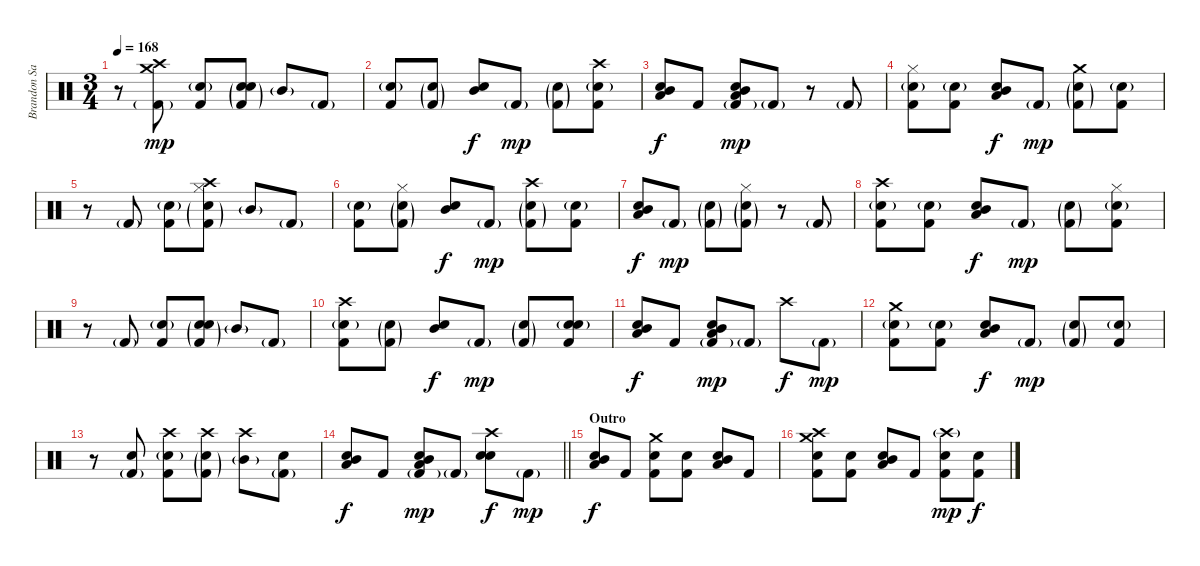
\track ("Brandon Saller" "Brandon Sa") {instrument percussion}
\staff {score}
\articulation defaults
\ts (3 4)
\tempo 168
\clef neutral
\ks c
r.8{dy mp} ("Crash high (hit)" "Crash medium (hit)" "Kick (hit) 2"{g}).8 ("Snare (hit)"{g} "Kick (hit) 2").8 ("Electric Snare (hit)" "Snare (hit)"{g} "Kick (hit) 2"{g}).8 "Mid Tom (hit)"{g}.8 "Kick (hit) 2"{g}.8 |
("Snare (hit)"{g} "Kick (hit) 2").8 ("Snare (hit)"{g} "Kick (hit) 2"{g}).8 ("Snare (hit) 2" "Mid Tom (hit)").8{dy f} "Kick (hit) 2"{g}.8{dy mp} ("Snare (hit)"{g} "Kick (hit) 2"{g}).8 ("Crash high (hit)" "Snare (hit)"{g} "Kick (hit) 2").8 |
("Snare (hit) 2" "Low Tom (hit)" "Mid Tom (hit)").8{dy f} "Kick (hit) 2".8 ("Snare (hit) 2" "Low Tom (hit)" "Mid Tom (hit)" "Kick (hit) 2"{g}).8{dy mp} "Kick (hit) 2"{g}.8 r.8 "Kick (hit) 2"{g}.8 |
("Hi-Hat (closed)" "Snare (hit)"{g} "Kick (hit) 2").8 ("Snare (hit)"{g} "Kick (hit) 2").8 ("Snare (hit) 2" "Low Tom (hit)" "Mid Tom (hit)").8{dy f} "Kick (hit) 2"{g}.8{dy mp} ("Crash medium (hit)" "Snare (hit)"{g} "Kick (hit) 2"{g}).8 ("Snare (hit)"{g} "Kick (hit) 2").8 |
r.8 "Kick (hit) 2"{g}.8 ("Snare (hit)"{g} "Kick (hit) 2").8 ("Crash high (hit)" "Hi-Hat (closed)" "Snare (hit)"{g} "Kick (hit) 2"{g}).8 "Mid Tom (hit)"{g}.8 "Kick (hit) 2"{g}.8 |
("Snare (hit)"{g} "Kick (hit) 2").8 ("Hi-Hat (closed)" "Snare (hit)"{g} "Kick (hit) 2"{g}).8 ("Snare (hit) 2" "Mid Tom (hit)").8{dy f} "Kick (hit) 2"{g}.8{dy mp} ("Crash high (hit)" "Snare (hit)"{g} "Kick (hit) 2"{g}).8 ("Snare (hit)"{g} "Kick (hit) 2").8 |
("Snare (hit) 2" "Low Tom (hit)" "Mid Tom (hit)").8{dy f} "Kick (hit) 2"{g}.8{dy mp} ("Snare (hit)"{g} "Kick (hit) 2"{g}).8 ("Hi-Hat (closed)" "Snare (hit)"{g} "Kick (hit) 2"{g}).8 r.8 "Kick (hit) 2"{g}.8 |
("Crash high (hit)" "Snare (hit)"{g} "Kick (hit) 2").8 ("Snare (hit)"{g} "Kick (hit) 2").8 ("Snare (hit) 2" "Low Tom (hit)" "Mid Tom (hit)").8{dy f} "Kick (hit) 2"{g}.8{dy mp} ("Snare (hit)"{g} "Kick (hit) 2"{g}).8 ("Hi-Hat (closed)" "Snare (hit)"{g} "Kick (hit) 2").8 |
r.8 "Kick (hit) 2"{g}.8 ("Snare (hit)"{g} "Kick (hit) 2").8 ("Electric Snare (hit)" "Snare (hit)"{g} "Kick (hit) 2"{g}).8 "Mid Tom (hit)"{g}.8 "Kick (hit) 2"{g}.8 |
("Crash high (hit)" "Snare (hit)"{g} "Kick (hit) 2").8 ("Snare (hit)"{g} "Kick (hit) 2"{g}).8 ("Snare (hit) 2" "Mid Tom (hit)").8{dy f} "Kick (hit) 2"{g}.8{dy mp} ("Snare (hit)"{g} "Kick (hit) 2"{g}).8 ("Electric Snare (hit)" "Snare (hit)"{g} "Kick (hit) 2").8 |
("Snare (hit) 2" "Low Tom (hit)" "Mid Tom (hit)").8{dy f} "Kick (hit) 2".8 ("Snare (hit) 2" "Low Tom (hit)" "Mid Tom (hit)" "Kick (hit) 2"{g}).8{dy mp} "Kick (hit) 2"{g}.8 "Crash high (hit)".8{dy f} "Kick (hit) 2"{g}.8{dy mp} |
("Crash medium (hit)" "Snare (hit)"{g} "Kick (hit) 2").8 ("Snare (hit)"{g} "Kick (hit) 2").8 ("Snare (hit) 2" "Low Tom (hit)" "Mid Tom (hit)").8{dy f} "Kick (hit) 2"{g}.8{dy mp} ("Snare (hit)"{g} "Kick (hit) 2"{g}).8 ("Snare (hit)"{g} "Kick (hit) 2").8 |
r.8 ("Electric Snare (hit)" "Kick (hit) 2"{g}).8 ("Crash high (hit)" "Snare (hit)"{g} "Kick (hit) 2").8 ("Crash high (hit)" "Snare (hit)"{g} "Kick (hit) 2"{g}).8 ("Crash high (hit)" "Mid Tom (hit)"{g}).8 ("Electric Snare (hit)" "Kick (hit) 2"{g}).8 |
\barLineRight lightlight
("Snare (hit) 2" "Low Tom (hit)" "Mid Tom (hit)").8{dy f} "Kick (hit) 2".8 ("Snare (hit) 2" "Low Tom (hit)" "Mid Tom (hit)" "Kick (hit) 2"{g}).8{dy mp} "Kick (hit) 2"{g}.8 ("Snare (hit) 2" "Electric Snare (hit)" "Crash high (hit)").8{dy f} "Kick (hit) 2"{g}.8{dy mp} |
\section ("" "Outro")
("Snare (hit) 2" "Low Tom (hit)" "Mid Tom (hit)").8{dy f} "Kick (hit) 2".8 ("Crash medium (hit)" "Snare (hit)" "Kick (hit) 2").8 ("Snare (hit)" "Kick (hit) 2").8 ("Snare (hit) 2" "Low Tom (hit)" "Mid Tom (hit)").8 "Kick (hit) 2".8 |
("Crash high (hit)" "Crash medium (hit)" "Snare (hit)" "Kick (hit) 2").8 ("Snare (hit)" "Kick (hit) 2").8 ("Snare (hit) 2" "Low Tom (hit)" "Mid Tom (hit)").8 "Kick (hit) 2".8 ("Crash high (hit)"{g} "Snare (hit)" "Kick (hit) 2").8{dy mp} ("Snare (hit)" "Kick (hit) 2").8{dy f}
